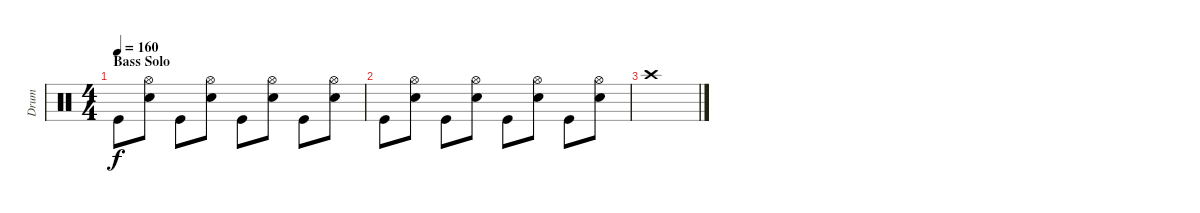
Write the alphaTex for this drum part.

\track ("Drum" "Drum") {instrument percussion}
\staff {score}
\articulation defaults
\ts (4 4)
\section ("" "Bass Solo")
\tempo 160
\clef neutral
\ks c "Kick (hit)".8{dy f}
("Hi-Hat (open)" "Electric Snare (hit)").8 "Kick (hit)".8 ("Hi-Hat (open)" "Electric Snare (hit)").8 "Kick (hit)".8 ("Hi-Hat (open)" "Electric Snare (hit)").8 "Kick (hit)".8 ("Hi-Hat (open)" "Electric Snare (hit)").8 |
"Kick (hit)".8 ("Hi-Hat (open)" "Electric Snare (hit)").8 "Kick (hit)".8 ("Hi-Hat (open)" "Electric Snare (hit)").8 "Kick (hit)".8 ("Hi-Hat (open)" "Electric Snare (hit)").8 "Kick (hit)".8 ("Hi-Hat (open)" "Electric Snare (hit)").8 |
"Crash high (hit)".1
